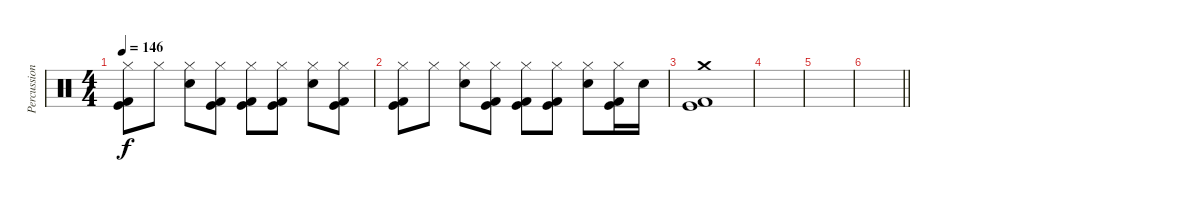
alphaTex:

\track ("Percussion" "Percussion") {instrument percussion}
\staff {score}
\articulation defaults
\ts (4 4)
\tempo 146
\clef neutral
\ks c
("Hi-Hat (closed)" "Kick (hit)" "Kick (hit) 2").8{dy f} "Hi-Hat (closed)".8 ("Hi-Hat (closed)" "Electric Snare (hit)").8 ("Hi-Hat (closed)" "Kick (hit)" "Kick (hit) 2").8 ("Hi-Hat (closed)" "Kick (hit)" "Kick (hit) 2").8 ("Hi-Hat (closed)" "Kick (hit)" "Kick (hit) 2").8 ("Hi-Hat (closed)" "Electric Snare (hit)").8 ("Hi-Hat (closed)" "Kick (hit)" "Kick (hit) 2").8 |
("Hi-Hat (closed)" "Kick (hit)" "Kick (hit) 2").8 "Hi-Hat (closed)".8 ("Hi-Hat (closed)" "Electric Snare (hit)").8 ("Hi-Hat (closed)" "Kick (hit)" "Kick (hit) 2").8 ("Hi-Hat (closed)" "Kick (hit)" "Kick (hit) 2").8 ("Hi-Hat (closed)" "Kick (hit)" "Kick (hit) 2").8 ("Hi-Hat (closed)" "Electric Snare (hit)").8 ("Hi-Hat (closed)" "Kick (hit)" "Kick (hit) 2").16 "Electric Snare (hit)".16 |
("Crash medium (hit)" "Kick (hit)" "Kick (hit) 2").1 |
|
|
\barLineRight lightlight
